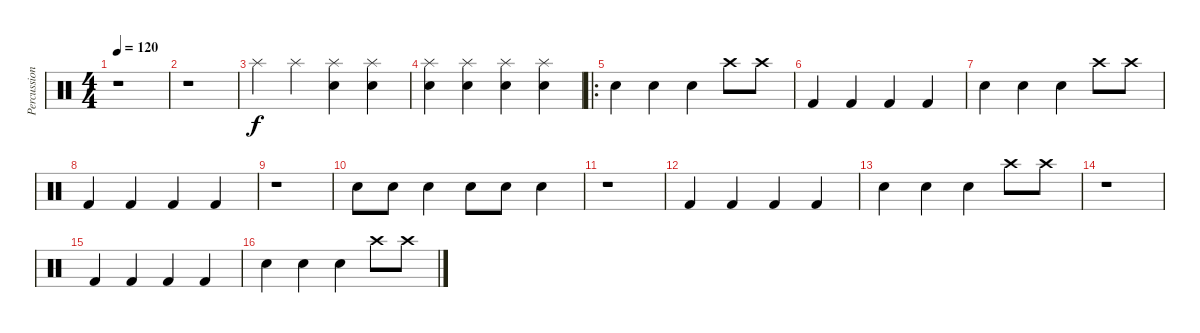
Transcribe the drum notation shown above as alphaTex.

\track ("Percussion" "Percussion") {instrument percussion}
\staff {score}
\articulation defaults
\ts (4 4)
\tempo 120
\clef neutral
\ks c
r.1{dy f} |
r.1 |
"Splash (hit)".4 "Splash (hit)".4 ("Splash (hit)" "Electric Snare (hit)").4 ("Splash (hit)" "Electric Snare (hit)").4 |
("Splash (hit)" "Electric Snare (hit)").4 ("Splash (hit)" "Electric Snare (hit)").4 ("Splash (hit)" "Electric Snare (hit)").4 ("Splash (hit)" "Electric Snare (hit)").4 |
\ro "Electric Snare (hit)".4 "Electric Snare (hit)".4 "Electric Snare (hit)".4 "Crash high (hit)".8 "Crash high (hit)".8
|
"Kick (hit) 2".4 "Kick (hit) 2".4 "Kick (hit) 2".4 "Kick (hit) 2".4 |
"Snare (hit) 2".4 "Electric Snare (hit)".4 "Electric Snare (hit)".4 "Crash high (hit)".8 "Crash high (hit)".8 |
"Kick (hit) 2".4 "Kick (hit) 2".4 "Kick (hit) 2".4 "Kick (hit) 2".4 |
r.1 |
"Snare (hit) 2".8 "Snare (hit) 2".8 "Snare (hit) 2".4 "Snare (hit) 2".8 "Snare (hit) 2".8 "Snare (hit) 2".4 |
r.1 |
"Kick (hit) 2".4 "Kick (hit) 2".4 "Kick (hit) 2".4 "Kick (hit) 2".4 |
"Electric Snare (hit)".4 "Electric Snare (hit)".4 "Electric Snare (hit)".4 "Crash high (hit)".8 "Crash high (hit)".8 |
r.1 |
"Kick (hit) 2".4 "Kick (hit) 2".4 "Kick (hit) 2".4 "Kick (hit) 2".4 |
"Electric Snare (hit)".4 "Electric Snare (hit)".4 "Electric Snare (hit)".4 "Crash high (hit)".8 "Crash high (hit)".8
